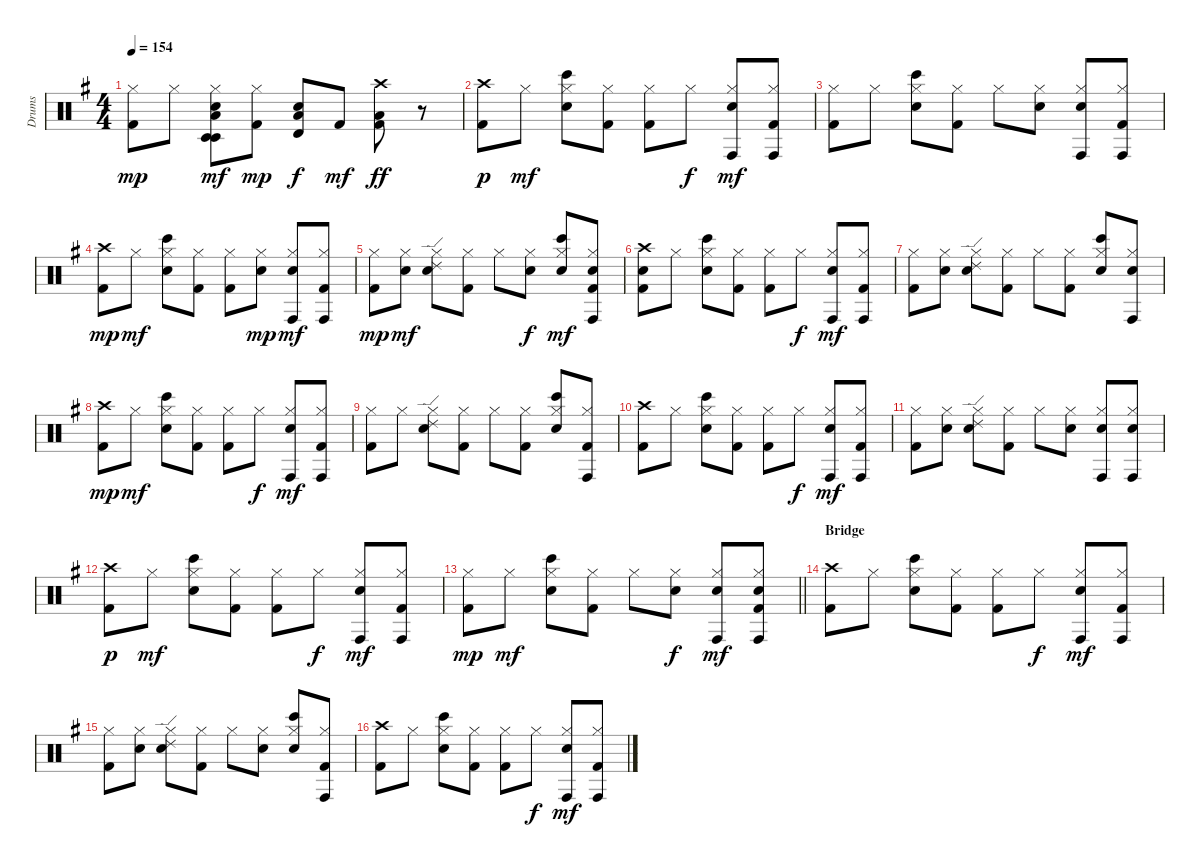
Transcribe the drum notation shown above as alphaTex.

\track ("Drums" "Drums") {instrument percussion}
\staff {score}
\articulation defaults
\ts (4 4)
\tempo 154
\clef neutral
\ks g
("Kick (hit) 2" "Hi-Hat (closed)").8{dy mp} "Hi-Hat (closed)".8 ("Timbale low (hit)" "Electric Snare (hit)" "Low Floor Tom (hit)" "Hi-Hat (closed)" "Timbale low (hit)").8{dy mf} ("Kick (hit) 2" "Hi-Hat (closed)").8{dy mp} ("Electric Snare (hit)" "Low Floor Tom (hit)" "Timbale high (hit)").8{dy f} "Kick (hit) 2".8{dy mf} ("Kick (hit) 2" "Low Floor Tom (hit)" "Crash high (hit)").8{dy ff} r.8 |
("Kick (hit) 2" "Crash high (hit)").8{dy p} "Hi-Hat (closed)".8{dy mf} ("Electric Snare (hit)" "Hi-Hat (closed)" "Bongo High (hit)").8 ("Kick (hit) 2" "Hi-Hat (closed)").8 ("Kick (hit) 2" "Hi-Hat (closed)").8 "Hi-Hat (closed)".8{dy f} ("Electric Snare (hit)" "Hi-Hat (closed)" "Conga high (hit)").8{dy mf} ("Kick (hit) 2" "Hi-Hat (closed)" "Conga high (hit)").8 |
("Kick (hit) 2" "Hi-Hat (closed)").8 "Hi-Hat (closed)".8 ("Electric Snare (hit)" "Hi-Hat (closed)" "Bongo High (hit)").8 ("Kick (hit) 2" "Hi-Hat (closed)").8 "Hi-Hat (closed)".8 ("Electric Snare (hit)" "Hi-Hat (closed)").8 ("Electric Snare (hit)" "Hi-Hat (closed)" "Conga high (hit)").8 ("Kick (hit) 2" "Hi-Hat (closed)" "Conga high (hit)").8 |
("Kick (hit) 2" "Crash high (hit)").8{dy mp} "Hi-Hat (closed)".8{dy mf} ("Electric Snare (hit)" "Hi-Hat (closed)" "Bongo High (hit)").8 ("Kick (hit) 2" "Hi-Hat (closed)").8 ("Kick (hit) 2" "Hi-Hat (closed)").8 ("Electric Snare (hit)" "Hi-Hat (closed)").8{dy mp} ("Electric Snare (hit)" "Hi-Hat (closed)" "Conga high (hit)").8{dy mf} ("Kick (hit) 2" "Hi-Hat (closed)" "Conga high (hit)").8 |
("Kick (hit) 2" "Hi-Hat (closed)").8{dy mp} ("Electric Snare (hit)" "Hi-Hat (closed)").8{dy mf} ("Electric Snare (hit)" "Hi-Hat (closed)" "Ride (edge) 2").8 ("Kick (hit) 2" "Hi-Hat (closed)").8 "Hi-Hat (closed)".8 ("Electric Snare (hit)" "Hi-Hat (closed)").8{dy f} ("Electric Snare (hit)" "Hi-Hat (closed)" "Bongo High (hit)").8{dy mf} ("Kick (hit) 2" "Electric Snare (hit)" "Hi-Hat (closed)" "Conga high (hit)").8 |
("Kick (hit) 2" "Electric Snare (hit)" "Crash high (hit)").8 "Hi-Hat (closed)".8 ("Electric Snare (hit)" "Hi-Hat (closed)" "Bongo High (hit)").8 ("Kick (hit) 2" "Hi-Hat (closed)").8 ("Kick (hit) 2" "Hi-Hat (closed)").8 "Hi-Hat (closed)".8{dy f} ("Electric Snare (hit)" "Hi-Hat (closed)" "Conga high (hit)").8{dy mf} ("Kick (hit) 2" "Hi-Hat (closed)" "Conga high (hit)").8 |
("Kick (hit) 2" "Hi-Hat (closed)").8 ("Electric Snare (hit)" "Hi-Hat (closed)").8 ("Electric Snare (hit)" "Hi-Hat (closed)" "Ride (edge) 2").8 ("Kick (hit) 2" "Hi-Hat (closed)").8 "Hi-Hat (closed)".8 ("Kick (hit) 2" "Hi-Hat (closed)").8 ("Electric Snare (hit)" "Hi-Hat (closed)" "Bongo High (hit)").8 ("Electric Snare (hit)" "Hi-Hat (closed)" "Conga high (hit)").8 |
("Kick (hit) 2" "Crash high (hit)").8{dy mp} "Hi-Hat (closed)".8{dy mf} ("Electric Snare (hit)" "Hi-Hat (closed)" "Bongo High (hit)").8 ("Kick (hit) 2" "Hi-Hat (closed)").8 ("Kick (hit) 2" "Hi-Hat (closed)").8 "Hi-Hat (closed)".8{dy f} ("Electric Snare (hit)" "Hi-Hat (closed)" "Conga high (hit)").8{dy mf} ("Kick (hit) 2" "Hi-Hat (closed)" "Conga high (hit)").8 |
("Kick (hit) 2" "Hi-Hat (closed)").8 "Hi-Hat (closed)".8 ("Electric Snare (hit)" "Hi-Hat (closed)" "Ride (edge) 2").8 ("Kick (hit) 2" "Hi-Hat (closed)").8 "Hi-Hat (closed)".8 ("Kick (hit) 2" "Hi-Hat (closed)").8 ("Electric Snare (hit)" "Hi-Hat (closed)" "Bongo High (hit)").8 ("Kick (hit) 2" "Hi-Hat (closed)" "Conga high (hit)").8 |
("Kick (hit) 2" "Crash high (hit)").8 "Hi-Hat (closed)".8 ("Electric Snare (hit)" "Hi-Hat (closed)" "Bongo High (hit)").8 ("Kick (hit) 2" "Hi-Hat (closed)").8 ("Kick (hit) 2" "Hi-Hat (closed)").8 "Hi-Hat (closed)".8{dy f} ("Electric Snare (hit)" "Hi-Hat (closed)" "Conga high (hit)").8{dy mf} ("Kick (hit) 2" "Hi-Hat (closed)" "Conga high (hit)").8 |
("Kick (hit) 2" "Hi-Hat (closed)").8 ("Electric Snare (hit)" "Hi-Hat (closed)").8 ("Electric Snare (hit)" "Hi-Hat (closed)" "Ride (edge) 2").8 ("Kick (hit) 2" "Hi-Hat (closed)").8 "Hi-Hat (closed)".8 ("Electric Snare (hit)" "Hi-Hat (closed)").8 ("Electric Snare (hit)" "Hi-Hat (closed)" "Conga high (hit)").8 ("Electric Snare (hit)" "Hi-Hat (closed)" "Conga high (hit)").8 |
("Kick (hit) 2" "Crash high (hit)").8{dy p} "Hi-Hat (closed)".8{dy mf} ("Electric Snare (hit)" "Hi-Hat (closed)" "Bongo High (hit)").8 ("Kick (hit) 2" "Hi-Hat (closed)").8 ("Kick (hit) 2" "Hi-Hat (closed)").8 "Hi-Hat (closed)".8{dy f} ("Electric Snare (hit)" "Hi-Hat (closed)" "Conga high (hit)").8{dy mf} ("Kick (hit) 2" "Hi-Hat (closed)" "Conga high (hit)").8 |
\barLineRight lightlight
("Kick (hit) 2" "Hi-Hat (closed)").8{dy mp} "Hi-Hat (closed)".8{dy mf} ("Electric Snare (hit)" "Hi-Hat (closed)" "Bongo High (hit)").8 ("Kick (hit) 2" "Hi-Hat (closed)").8 "Hi-Hat (closed)".8 ("Electric Snare (hit)" "Hi-Hat (closed)").8{dy f} ("Electric Snare (hit)" "Hi-Hat (closed)" "Conga high (hit)").8{dy mf} ("Kick (hit) 2" "Electric Snare (hit)" "Hi-Hat (closed)" "Conga high (hit)").8 |
\section ("" "Bridge")
("Kick (hit) 2" "Crash high (hit)").8 "Hi-Hat (closed)".8 ("Electric Snare (hit)" "Hi-Hat (closed)" "Bongo High (hit)").8 ("Kick (hit) 2" "Hi-Hat (closed)").8 ("Kick (hit) 2" "Hi-Hat (closed)").8 "Hi-Hat (closed)".8{dy f} ("Electric Snare (hit)" "Hi-Hat (closed)" "Conga high (hit)").8{dy mf} ("Kick (hit) 2" "Hi-Hat (closed)" "Conga high (hit)").8 |
("Kick (hit) 2" "Hi-Hat (closed)").8 ("Electric Snare (hit)" "Hi-Hat (closed)").8 ("Electric Snare (hit)" "Hi-Hat (closed)" "Ride (edge) 2").8 ("Kick (hit) 2" "Hi-Hat (closed)").8 "Hi-Hat (closed)".8 ("Electric Snare (hit)" "Hi-Hat (closed)").8 ("Electric Snare (hit)" "Hi-Hat (closed)" "Bongo High (hit)").8 ("Kick (hit) 2" "Hi-Hat (closed)" "Conga high (hit)").8 |
("Kick (hit) 2" "Crash high (hit)").8 "Hi-Hat (closed)".8 ("Electric Snare (hit)" "Hi-Hat (closed)" "Bongo High (hit)").8 ("Kick (hit) 2" "Hi-Hat (closed)").8 ("Kick (hit) 2" "Hi-Hat (closed)").8 "Hi-Hat (closed)".8{dy f} ("Electric Snare (hit)" "Hi-Hat (closed)" "Conga high (hit)").8{dy mf} ("Kick (hit) 2" "Hi-Hat (closed)" "Conga high (hit)").8
